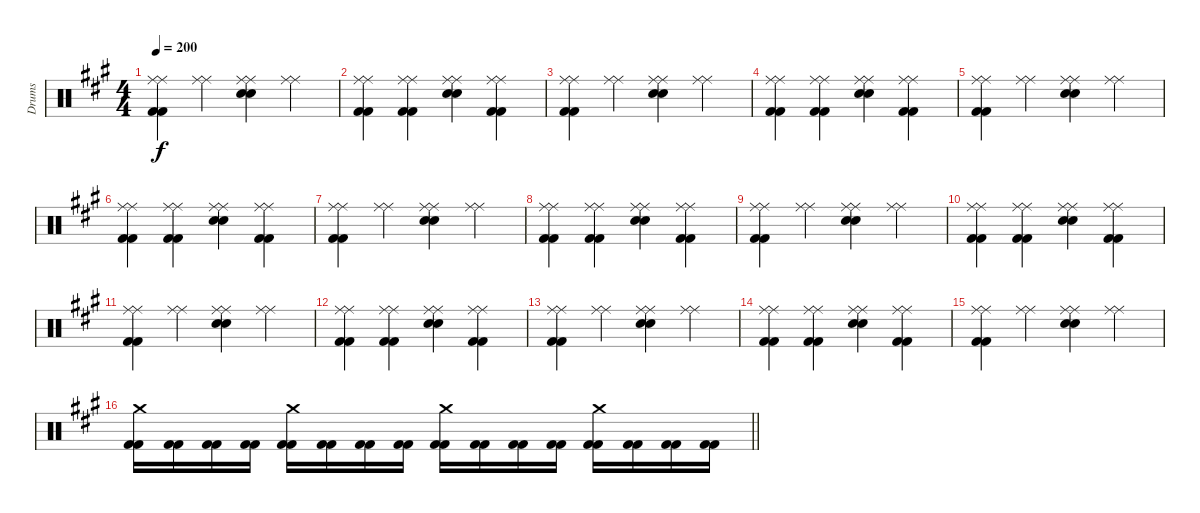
\track ("Drums" "Drums") {instrument percussion}
\staff {score}
\articulation defaults
\ts (4 4)
\tempo 200
\clef neutral
\ks f#minor
("Ride (middle)" "Ride (middle)" "Kick (hit) 2" "Kick (hit) 2").4{dy f} ("Ride (middle)" "Ride (middle)").4 ("Ride (middle)" "Ride (middle)" "Snare (hit) 2" "Snare (hit) 2").4 ("Ride (middle)" "Ride (middle)").4 |
("Ride (middle)" "Ride (middle)" "Kick (hit) 2" "Kick (hit) 2").4 ("Ride (middle)" "Ride (middle)" "Kick (hit) 2" "Kick (hit) 2").4 ("Ride (middle)" "Ride (middle)" "Snare (hit) 2" "Snare (hit) 2").4 ("Ride (middle)" "Ride (middle)" "Kick (hit) 2" "Kick (hit) 2").4 |
("Ride (middle)" "Ride (middle)" "Kick (hit) 2" "Kick (hit) 2").4 ("Ride (middle)" "Ride (middle)").4 ("Ride (middle)" "Ride (middle)" "Snare (hit) 2" "Snare (hit) 2").4 ("Ride (middle)" "Ride (middle)").4 |
("Ride (middle)" "Ride (middle)" "Kick (hit) 2" "Kick (hit) 2").4 ("Ride (middle)" "Ride (middle)" "Kick (hit) 2" "Kick (hit) 2").4 ("Ride (middle)" "Ride (middle)" "Snare (hit) 2" "Snare (hit) 2").4 ("Ride (middle)" "Ride (middle)" "Kick (hit) 2" "Kick (hit) 2").4 |
("Ride (middle)" "Ride (middle)" "Kick (hit) 2" "Kick (hit) 2").4 ("Ride (middle)" "Ride (middle)").4 ("Ride (middle)" "Ride (middle)" "Snare (hit) 2" "Snare (hit) 2").4 ("Ride (middle)" "Ride (middle)").4 |
("Ride (middle)" "Ride (middle)" "Kick (hit) 2" "Kick (hit) 2").4 ("Ride (middle)" "Ride (middle)" "Kick (hit) 2" "Kick (hit) 2").4 ("Ride (middle)" "Ride (middle)" "Snare (hit) 2" "Snare (hit) 2").4 ("Ride (middle)" "Ride (middle)" "Kick (hit) 2" "Kick (hit) 2").4 |
("Ride (middle)" "Ride (middle)" "Kick (hit) 2" "Kick (hit) 2").4 ("Ride (middle)" "Ride (middle)").4 ("Ride (middle)" "Ride (middle)" "Snare (hit) 2" "Snare (hit) 2").4 ("Ride (middle)" "Ride (middle)").4 |
("Ride (middle)" "Ride (middle)" "Kick (hit) 2" "Kick (hit) 2").4 ("Ride (middle)" "Ride (middle)" "Kick (hit) 2" "Kick (hit) 2").4 ("Ride (middle)" "Ride (middle)" "Snare (hit) 2" "Snare (hit) 2").4 ("Ride (middle)" "Ride (middle)" "Kick (hit) 2" "Kick (hit) 2").4 |
("Ride (middle)" "Ride (middle)" "Kick (hit) 2" "Kick (hit) 2").4 ("Ride (middle)" "Ride (middle)").4 ("Ride (middle)" "Ride (middle)" "Snare (hit) 2" "Snare (hit) 2").4 ("Ride (middle)" "Ride (middle)").4 |
("Ride (middle)" "Ride (middle)" "Kick (hit) 2" "Kick (hit) 2").4 ("Ride (middle)" "Ride (middle)" "Kick (hit) 2" "Kick (hit) 2").4 ("Ride (middle)" "Ride (middle)" "Snare (hit) 2" "Snare (hit) 2").4 ("Ride (middle)" "Ride (middle)" "Kick (hit) 2" "Kick (hit) 2").4 |
("Ride (middle)" "Ride (middle)" "Kick (hit) 2" "Kick (hit) 2").4 ("Ride (middle)" "Ride (middle)").4 ("Ride (middle)" "Ride (middle)" "Snare (hit) 2" "Snare (hit) 2").4 ("Ride (middle)" "Ride (middle)").4 |
("Ride (middle)" "Ride (middle)" "Kick (hit) 2" "Kick (hit) 2").4 ("Ride (middle)" "Ride (middle)" "Kick (hit) 2" "Kick (hit) 2").4 ("Ride (middle)" "Ride (middle)" "Snare (hit) 2" "Snare (hit) 2").4 ("Ride (middle)" "Ride (middle)" "Kick (hit) 2" "Kick (hit) 2").4 |
("Ride (middle)" "Ride (middle)" "Kick (hit) 2" "Kick (hit) 2").4 ("Ride (middle)" "Ride (middle)").4 ("Ride (middle)" "Ride (middle)" "Snare (hit) 2" "Snare (hit) 2").4 ("Ride (middle)" "Ride (middle)").4 |
("Ride (middle)" "Ride (middle)" "Kick (hit) 2" "Kick (hit) 2").4 ("Ride (middle)" "Ride (middle)" "Kick (hit) 2" "Kick (hit) 2").4 ("Ride (middle)" "Ride (middle)" "Snare (hit) 2" "Snare (hit) 2").4 ("Ride (middle)" "Ride (middle)" "Kick (hit) 2" "Kick (hit) 2").4 |
("Ride (middle)" "Ride (middle)" "Kick (hit) 2" "Kick (hit) 2").4 ("Ride (middle)" "Ride (middle)").4 ("Ride (middle)" "Ride (middle)" "Snare (hit) 2" "Snare (hit) 2").4 ("Ride (middle)" "Ride (middle)").4 |
\barLineRight lightlight
("Crash medium (hit)" "Kick (hit) 2" "Kick (hit) 2").16 ("Kick (hit) 2" "Kick (hit) 2").16 ("Kick (hit) 2" "Kick (hit) 2").16 ("Kick (hit) 2" "Kick (hit) 2").16 ("Crash medium (hit)" "Kick (hit) 2" "Kick (hit) 2").16 ("Kick (hit) 2" "Kick (hit) 2").16 ("Kick (hit) 2" "Kick (hit) 2").16 ("Kick (hit) 2" "Kick (hit) 2").16 ("Crash medium (hit)" "Kick (hit) 2" "Kick (hit) 2").16 ("Kick (hit) 2" "Kick (hit) 2").16 ("Kick (hit) 2" "Kick (hit) 2").16 ("Kick (hit) 2" "Kick (hit) 2").16 ("Crash medium (hit)" "Kick (hit) 2" "Kick (hit) 2").16 ("Kick (hit) 2" "Kick (hit) 2").16 ("Kick (hit) 2" "Kick (hit) 2").16 ("Kick (hit) 2" "Kick (hit) 2").16
